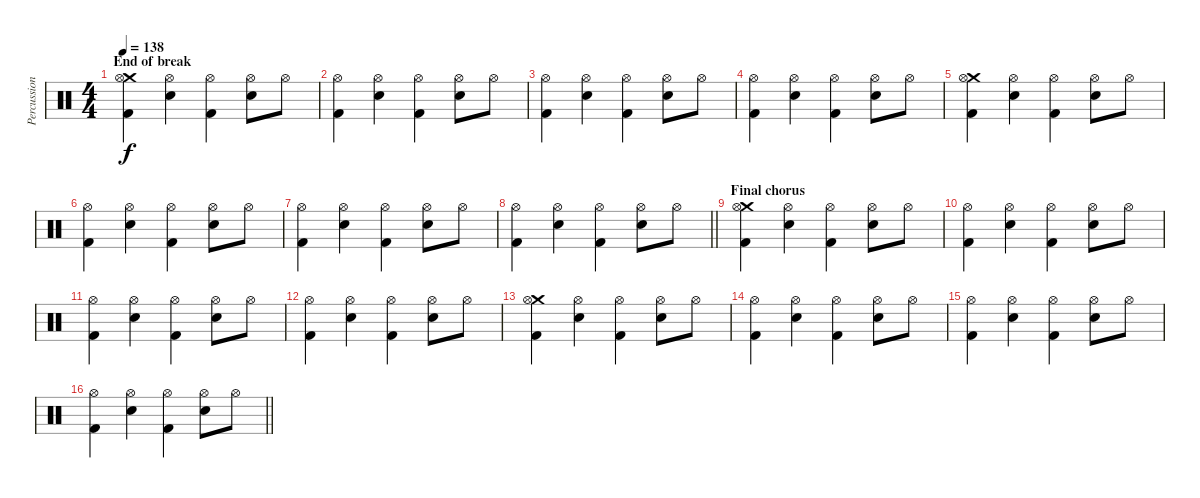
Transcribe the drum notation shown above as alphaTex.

\track ("Percussion" "Percussion") {instrument percussion}
\staff {score}
\articulation defaults
\ts (4 4)
\section ("" "End of break")
\tempo 138
\clef neutral
\ks c
("Crash medium (hit)" "Hi-Hat (open)" "Kick (hit) 2").4{dy f} ("Snare (hit) 2" "Hi-Hat (open)").4 ("Hi-Hat (open)" "Kick (hit) 2").4 ("Snare (hit) 2" "Hi-Hat (open)").8 "Hi-Hat (open)".8 |
("Hi-Hat (open)" "Kick (hit) 2").4 ("Snare (hit) 2" "Hi-Hat (open)").4 ("Hi-Hat (open)" "Kick (hit) 2").4 ("Snare (hit) 2" "Hi-Hat (open)").8 "Hi-Hat (open)".8 |
("Hi-Hat (open)" "Kick (hit) 2").4 ("Snare (hit) 2" "Hi-Hat (open)").4 ("Hi-Hat (open)" "Kick (hit) 2").4 ("Snare (hit) 2" "Hi-Hat (open)").8 "Hi-Hat (open)".8 |
("Hi-Hat (open)" "Kick (hit) 2").4 ("Snare (hit) 2" "Hi-Hat (open)").4 ("Hi-Hat (open)" "Kick (hit) 2").4 ("Snare (hit) 2" "Hi-Hat (open)").8 "Hi-Hat (open)".8 |
("Crash medium (hit)" "Hi-Hat (open)" "Kick (hit) 2").4 ("Snare (hit) 2" "Hi-Hat (open)").4 ("Hi-Hat (open)" "Kick (hit) 2").4 ("Snare (hit) 2" "Hi-Hat (open)").8 "Hi-Hat (open)".8 |
("Hi-Hat (open)" "Kick (hit) 2").4 ("Snare (hit) 2" "Hi-Hat (open)").4 ("Hi-Hat (open)" "Kick (hit) 2").4 ("Snare (hit) 2" "Hi-Hat (open)").8 "Hi-Hat (open)".8 |
("Hi-Hat (open)" "Kick (hit) 2").4 ("Snare (hit) 2" "Hi-Hat (open)").4 ("Hi-Hat (open)" "Kick (hit) 2").4 ("Snare (hit) 2" "Hi-Hat (open)").8 "Hi-Hat (open)".8 |
\barLineRight lightlight
("Hi-Hat (open)" "Kick (hit) 2").4 ("Snare (hit) 2" "Hi-Hat (open)").4 ("Hi-Hat (open)" "Kick (hit) 2").4 ("Snare (hit) 2" "Hi-Hat (open)").8 "Hi-Hat (open)".8 |
\section ("" "Final chorus")
("Crash medium (hit)" "Hi-Hat (open)" "Kick (hit) 2").4 ("Snare (hit) 2" "Hi-Hat (open)").4 ("Hi-Hat (open)" "Kick (hit) 2").4 ("Snare (hit) 2" "Hi-Hat (open)").8 "Hi-Hat (open)".8 |
("Hi-Hat (open)" "Kick (hit) 2").4 ("Snare (hit) 2" "Hi-Hat (open)").4 ("Hi-Hat (open)" "Kick (hit) 2").4 ("Snare (hit) 2" "Hi-Hat (open)").8 "Hi-Hat (open)".8 |
("Hi-Hat (open)" "Kick (hit) 2").4 ("Snare (hit) 2" "Hi-Hat (open)").4 ("Hi-Hat (open)" "Kick (hit) 2").4 ("Snare (hit) 2" "Hi-Hat (open)").8 "Hi-Hat (open)".8 |
("Hi-Hat (open)" "Kick (hit) 2").4 ("Snare (hit) 2" "Hi-Hat (open)").4 ("Hi-Hat (open)" "Kick (hit) 2").4 ("Snare (hit) 2" "Hi-Hat (open)").8 "Hi-Hat (open)".8 |
("Crash medium (hit)" "Hi-Hat (open)" "Kick (hit) 2").4 ("Snare (hit) 2" "Hi-Hat (open)").4 ("Hi-Hat (open)" "Kick (hit) 2").4 ("Snare (hit) 2" "Hi-Hat (open)").8 "Hi-Hat (open)".8 |
("Hi-Hat (open)" "Kick (hit) 2").4 ("Snare (hit) 2" "Hi-Hat (open)").4 ("Hi-Hat (open)" "Kick (hit) 2").4 ("Snare (hit) 2" "Hi-Hat (open)").8 "Hi-Hat (open)".8 |
("Hi-Hat (open)" "Kick (hit) 2").4 ("Snare (hit) 2" "Hi-Hat (open)").4 ("Hi-Hat (open)" "Kick (hit) 2").4 ("Snare (hit) 2" "Hi-Hat (open)").8 "Hi-Hat (open)".8 |
\barLineRight lightlight
("Hi-Hat (open)" "Kick (hit) 2").4 ("Snare (hit) 2" "Hi-Hat (open)").4 ("Hi-Hat (open)" "Kick (hit) 2").4 ("Snare (hit) 2" "Hi-Hat (open)").8 "Hi-Hat (open)".8
